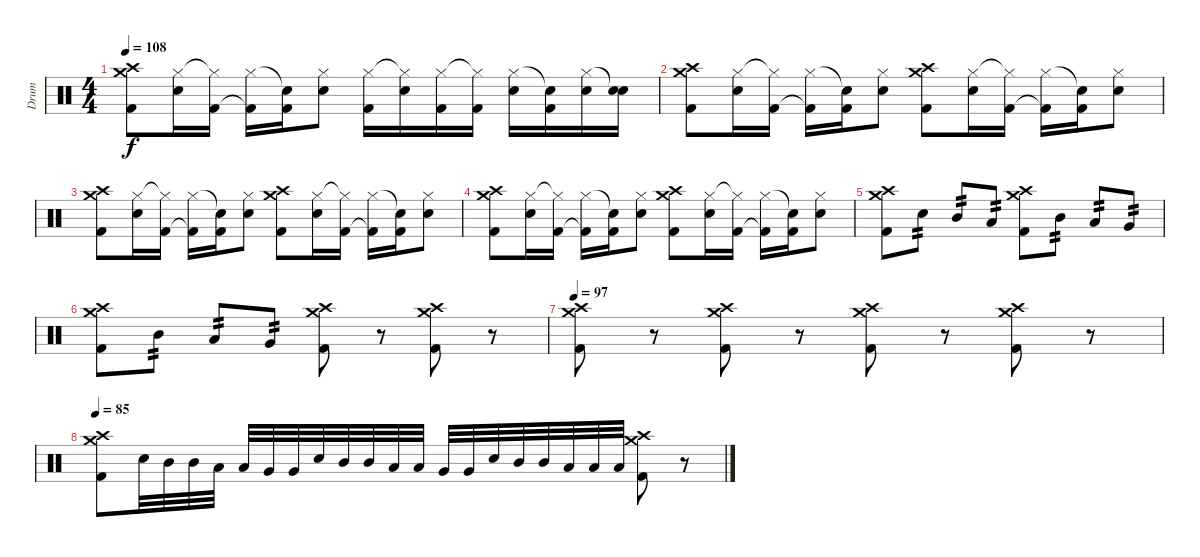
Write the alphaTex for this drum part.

\track ("Drum" "Drum") {instrument percussion}
\staff {score}
\articulation defaults
\ts (4 4)
\tempo 108
\clef neutral
\ks c
("Crash high (hit)" "Kick (hit) 2" "Crash medium (hit)").8{dy f} ("Hi-Hat (closed)" "Electric Snare (hit)").16 ("Hi-Hat (closed)"{t} "Kick (hit) 2").16 ("Hi-Hat (closed)" "Kick (hit) 2"{t}).16 ("Snare (hit)"{t} "Kick (hit) 2").16 ("Hi-Hat (closed)" "Electric Snare (hit)").8 ("Hi-Hat (closed)" "Kick (hit) 2").16 ("Hi-Hat (closed)"{t} "Electric Snare (hit)").16 ("Hi-Hat (closed)" "Kick (hit) 2").16 ("Hi-Hat (closed)"{t} "Kick (hit) 2").16 ("Hi-Hat (closed)" "Electric Snare (hit)").16 ("Snare (hit)"{t} "Kick (hit) 2").16 ("Hi-Hat (closed)" "Electric Snare (hit)").16 ("Snare (hit)"{t} "Electric Snare (hit)").16 |
("Crash medium (hit)" "Crash high (hit)" "Kick (hit) 2").8 ("Hi-Hat (closed)" "Electric Snare (hit)").16 ("Hi-Hat (closed)"{t} "Kick (hit) 2").16 ("Hi-Hat (closed)" "Kick (hit) 2"{t}).16 ("Snare (hit)"{t} "Kick (hit) 2").16 ("Hi-Hat (closed)" "Electric Snare (hit)").8 ("Crash medium (hit)" "Kick (hit) 2" "Crash high (hit)").8 ("Hi-Hat (closed)" "Electric Snare (hit)").16 ("Hi-Hat (closed)"{t} "Kick (hit) 2").16 ("Hi-Hat (closed)" "Kick (hit) 2"{t}).16 ("Snare (hit)"{t} "Kick (hit) 2").16 ("Hi-Hat (closed)" "Electric Snare (hit)").8 |
("Crash medium (hit)" "Crash high (hit)" "Kick (hit) 2").8 ("Hi-Hat (closed)" "Electric Snare (hit)").16 ("Hi-Hat (closed)"{t} "Kick (hit) 2").16 ("Hi-Hat (closed)" "Kick (hit) 2"{t}).16 ("Snare (hit)"{t} "Kick (hit) 2").16 ("Hi-Hat (closed)" "Electric Snare (hit)").8 ("Crash medium (hit)" "Kick (hit) 2" "Crash high (hit)").8 ("Hi-Hat (closed)" "Electric Snare (hit)").16 ("Hi-Hat (closed)"{t} "Kick (hit) 2").16 ("Hi-Hat (closed)" "Kick (hit) 2"{t}).16 ("Snare (hit)"{t} "Kick (hit) 2").16 ("Hi-Hat (closed)" "Electric Snare (hit)").8 |
("Crash medium (hit)" "Crash high (hit)" "Kick (hit) 2").8 ("Hi-Hat (closed)" "Electric Snare (hit)").16 ("Hi-Hat (closed)"{t} "Kick (hit) 2").16 ("Hi-Hat (closed)" "Kick (hit) 2"{t}).16 ("Snare (hit)"{t} "Kick (hit) 2").16 ("Hi-Hat (closed)" "Electric Snare (hit)").8 ("Crash medium (hit)" "Kick (hit) 2" "Crash high (hit)").8 ("Hi-Hat (closed)" "Electric Snare (hit)").16 ("Hi-Hat (closed)"{t} "Kick (hit) 2").16 ("Hi-Hat (closed)" "Kick (hit) 2"{t}).16 ("Snare (hit)"{t} "Kick (hit) 2").16 ("Hi-Hat (closed)" "Electric Snare (hit)").8 |
("Crash medium (hit)" "Crash high (hit)" "Kick (hit) 2").8 "Electric Snare (hit)".8{tp 2} "Mid Tom (hit)".8{tp 2} "Low Tom (hit)".8{tp 2} ("Crash medium (hit)" "Crash high (hit)" "Kick (hit) 2").8 "Mid Tom (hit)".8{tp 2} "Low Tom (hit)".8{tp 2} "Very Low Tom (hit)".8{tp 2} |
("Crash medium (hit)" "Crash high (hit)" "Kick (hit) 2").8 "Mid Tom (hit)".8{tp 2} "Low Tom (hit)".8{tp 2} "Very Low Tom (hit)".8{tp 2} ("Crash medium (hit)" "Crash high (hit)" "Kick (hit) 2").8 r.8 ("Crash medium (hit)" "Crash high (hit)" "Kick (hit) 2").8 r.8 |
\tempo 97
("Crash medium (hit)" "Crash high (hit)" "Kick (hit) 2").8 r.8 ("Crash medium (hit)" "Crash high (hit)" "Kick (hit) 2").8 r.8 ("Crash medium (hit)" "Crash high (hit)" "Kick (hit) 2").8 r.8 ("Crash medium (hit)" "Crash high (hit)" "Kick (hit) 2").8 r.8 |
\tempo 85
("Crash medium (hit)" "Crash high (hit)" "Kick (hit) 2").8 "Electric Snare (hit)".32 "Mid Tom (hit)".32 "Mid Tom (hit)".32 "Low Tom (hit)".32 "Low Tom (hit)".32 "Very Low Tom (hit)".32 "Very Low Tom (hit)".32 "Electric Snare (hit)".32 "Mid Tom (hit)".32 "Mid Tom (hit)".32 "Low Tom (hit)".32 "Low Tom (hit)".32 "Very Low Tom (hit)".32 "Very Low Tom (hit)".32 "Electric Snare (hit)".32 "Mid Tom (hit)".32 "Mid Tom (hit)".32 "Low Tom (hit)".32 "Low Tom (hit)".32 "Low Tom (hit)".32 ("Crash medium (hit)" "Crash high (hit)" "Kick (hit) 2").8 r.8
